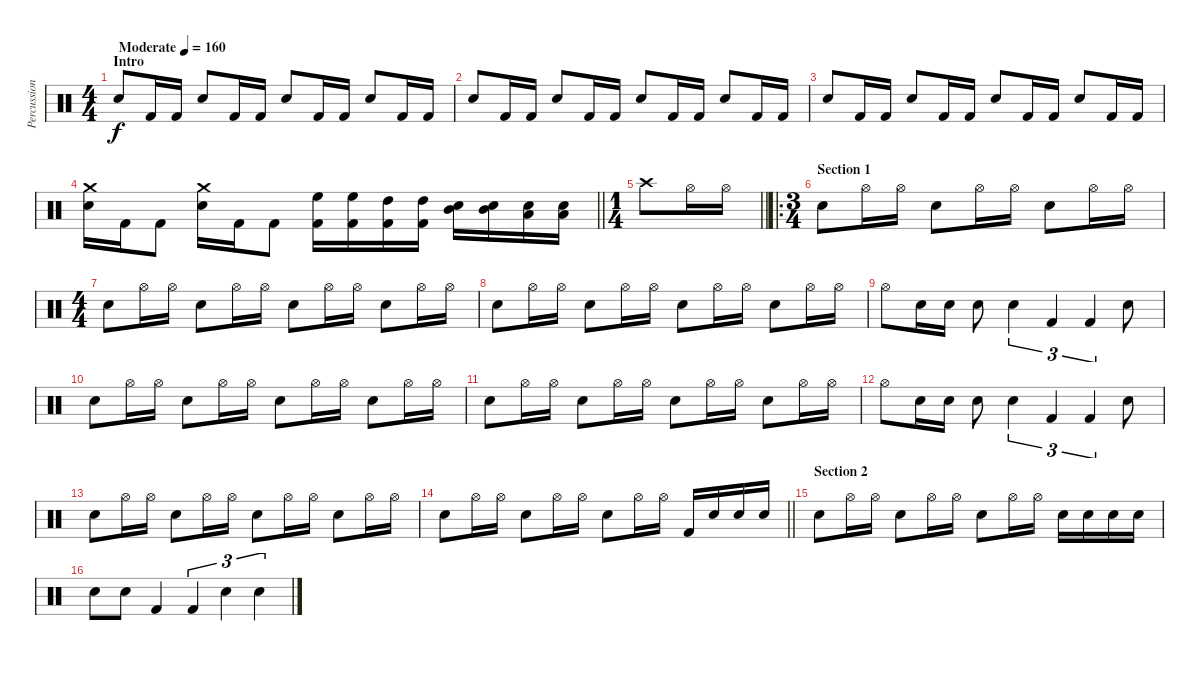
\track ("Percussion" "Percussion") {instrument percussion}
\staff {score}
\articulation defaults
\ts (4 4)
\section ("" "Intro")
\tempo (160 "Moderate")
\clef neutral
\ks c "Electric Snare (hit)".8{dy f} "Kick (hit) 2".16 "Kick (hit) 2".16 "Electric Snare (hit)".8 "Kick (hit) 2".16 "Kick (hit) 2".16 "Electric Snare (hit)".8 "Kick (hit) 2".16 "Kick (hit) 2".16 "Electric Snare (hit)".8 "Kick (hit) 2".16 "Kick (hit) 2".16
|
"Electric Snare (hit)".8 "Kick (hit) 2".16 "Kick (hit) 2".16 "Electric Snare (hit)".8 "Kick (hit) 2".16 "Kick (hit) 2".16 "Electric Snare (hit)".8 "Kick (hit) 2".16 "Kick (hit) 2".16 "Electric Snare (hit)".8 "Kick (hit) 2".16 "Kick (hit) 2".16 |
"Electric Snare (hit)".8 "Kick (hit) 2".16 "Kick (hit) 2".16 "Electric Snare (hit)".8 "Kick (hit) 2".16 "Kick (hit) 2".16 "Electric Snare (hit)".8 "Kick (hit) 2".16 "Kick (hit) 2".16 "Electric Snare (hit)".8 "Kick (hit) 2".16 "Kick (hit) 2".16 |
\barLineRight lightlight
("Electric Snare (hit)" "Crash medium (hit)").16 "Kick (hit) 2".16 "Kick (hit) 2".8 ("Electric Snare (hit)" "Crash medium (hit)").16 "Kick (hit) 2".16 "Kick (hit) 2".8 ("High Floor Tom (hit)" "Kick (hit) 2").16 ("High Floor Tom (hit)" "Kick (hit) 2").16 ("High Tom (hit)" "Kick (hit) 2").16 ("High Tom (hit)" "Kick (hit) 2").16 ("Mid Tom (hit)" "Electric Snare (hit)").16 ("Mid Tom (hit)" "Electric Snare (hit)").16 ("Low Tom (hit)" "Electric Snare (hit)").16 ("Low Tom (hit)" "Electric Snare (hit)").16 |
\ts (1 4)
\barLineRight lightlight "Crash high (hit)".8 "Hi-Hat (open)".16 "Hi-Hat (open)".16
|
\ro
\ts (3 4)
\section ("" "Section 1")
"Electric Snare (hit)".8 "Hi-Hat (open)".16 "Hi-Hat (open)".16 "Electric Snare (hit)".8 "Hi-Hat (open)".16 "Hi-Hat (open)".16 "Electric Snare (hit)".8 "Hi-Hat (open)".16 "Hi-Hat (open)".16 |
\ts (4 4)
"Electric Snare (hit)".8 "Hi-Hat (open)".16 "Hi-Hat (open)".16 "Electric Snare (hit)".8 "Hi-Hat (open)".16 "Hi-Hat (open)".16 "Electric Snare (hit)".8 "Hi-Hat (open)".16 "Hi-Hat (open)".16 "Electric Snare (hit)".8 "Hi-Hat (open)".16 "Hi-Hat (open)".16 |
"Electric Snare (hit)".8 "Hi-Hat (open)".16 "Hi-Hat (open)".16 "Electric Snare (hit)".8 "Hi-Hat (open)".16 "Hi-Hat (open)".16 "Electric Snare (hit)".8 "Hi-Hat (open)".16 "Hi-Hat (open)".16 "Electric Snare (hit)".8 "Hi-Hat (open)".16 "Hi-Hat (open)".16 |
"Hi-Hat (open)".8 "Electric Snare (hit)".16 "Electric Snare (hit)".16 "Electric Snare (hit)".8 "Snare (hit) 2".4{tu (3 2)} "Kick (hit) 2".4{tu (3 2)} "Kick (hit) 2".4{tu (3 2)} "Snare (hit) 2".8 |
"Electric Snare (hit)".8 "Hi-Hat (open)".16 "Hi-Hat (open)".16 "Electric Snare (hit)".8 "Hi-Hat (open)".16 "Hi-Hat (open)".16 "Electric Snare (hit)".8 "Hi-Hat (open)".16 "Hi-Hat (open)".16 "Electric Snare (hit)".8 "Hi-Hat (open)".16 "Hi-Hat (open)".16 |
"Electric Snare (hit)".8 "Hi-Hat (open)".16 "Hi-Hat (open)".16 "Electric Snare (hit)".8 "Hi-Hat (open)".16 "Hi-Hat (open)".16 "Electric Snare (hit)".8 "Hi-Hat (open)".16 "Hi-Hat (open)".16 "Electric Snare (hit)".8 "Hi-Hat (open)".16 "Hi-Hat (open)".16 |
"Hi-Hat (open)".8 "Electric Snare (hit)".16 "Electric Snare (hit)".16 "Electric Snare (hit)".8 "Snare (hit) 2".4{tu (3 2)} "Kick (hit) 2".4{tu (3 2)} "Kick (hit) 2".4{tu (3 2)} "Snare (hit) 2".8 |
"Electric Snare (hit)".8 "Hi-Hat (open)".16 "Hi-Hat (open)".16 "Electric Snare (hit)".8 "Hi-Hat (open)".16 "Hi-Hat (open)".16 "Electric Snare (hit)".8 "Hi-Hat (open)".16 "Hi-Hat (open)".16 "Electric Snare (hit)".8 "Hi-Hat (open)".16 "Hi-Hat (open)".16 |
\barLineRight lightlight "Electric Snare (hit)".8 "Hi-Hat (open)".16 "Hi-Hat (open)".16 "Electric Snare (hit)".8 "Hi-Hat (open)".16 "Hi-Hat (open)".16 "Electric Snare (hit)".8 "Hi-Hat (open)".16 "Hi-Hat (open)".16 "Kick (hit) 2".16 "Snare (hit) 2".16 "Snare (hit) 2".16 "Snare (hit) 2".16
|
\section ("" "Section 2")
"Electric Snare (hit)".8 "Hi-Hat (open)".16 "Hi-Hat (open)".16 "Electric Snare (hit)".8 "Hi-Hat (open)".16 "Hi-Hat (open)".16 "Electric Snare (hit)".8 "Hi-Hat (open)".16 "Hi-Hat (open)".16 "Snare (hit) 2".16 "Snare (hit) 2".16 "Snare (hit) 2".16 "Snare (hit) 2".16 |
"Snare (hit) 2".8 "Snare (hit) 2".8 "Kick (hit) 2".4 "Kick (hit) 2".4{tu (3 2)} "Snare (hit) 2".4{tu (3 2)} "Snare (hit) 2".4{tu (3 2)}
